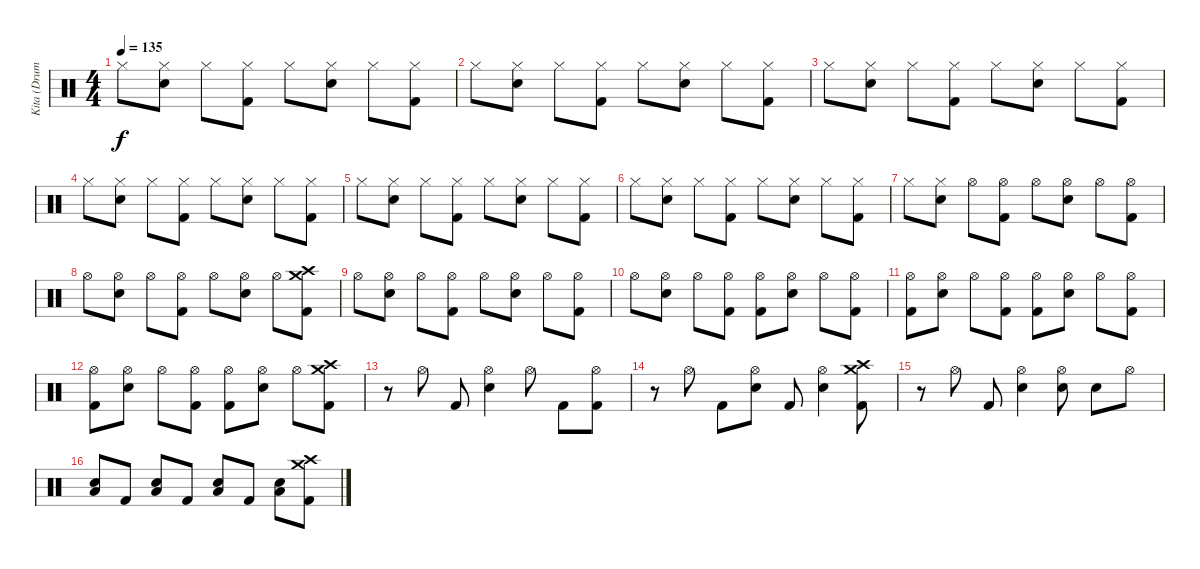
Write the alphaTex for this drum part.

\track ("Kita (Drums)" "Kita (Drum") {instrument percussion}
\staff {score}
\articulation defaults
\ts (4 4)
\tempo 135
\clef neutral
\ks c "Hi-Hat (closed)".8{dy f}
("Hi-Hat (closed)" "Electric Snare (hit)").8 "Hi-Hat (closed)".8 ("Hi-Hat (closed)" "Kick (hit) 2").8 "Hi-Hat (closed)".8 ("Hi-Hat (closed)" "Electric Snare (hit)").8 "Hi-Hat (closed)".8 ("Hi-Hat (closed)" "Kick (hit) 2").8 |
"Hi-Hat (closed)".8 ("Hi-Hat (closed)" "Electric Snare (hit)").8 "Hi-Hat (closed)".8 ("Hi-Hat (closed)" "Kick (hit) 2").8 "Hi-Hat (closed)".8 ("Hi-Hat (closed)" "Electric Snare (hit)").8 "Hi-Hat (closed)".8 ("Hi-Hat (closed)" "Kick (hit) 2").8 |
"Hi-Hat (closed)".8 ("Hi-Hat (closed)" "Electric Snare (hit)").8 "Hi-Hat (closed)".8 ("Hi-Hat (closed)" "Kick (hit) 2").8 "Hi-Hat (closed)".8 ("Hi-Hat (closed)" "Electric Snare (hit)").8 "Hi-Hat (closed)".8 ("Hi-Hat (closed)" "Kick (hit) 2").8 |
"Hi-Hat (closed)".8 ("Hi-Hat (closed)" "Electric Snare (hit)").8 "Hi-Hat (closed)".8 ("Hi-Hat (closed)" "Kick (hit) 2").8 "Hi-Hat (closed)".8 ("Hi-Hat (closed)" "Electric Snare (hit)").8 "Hi-Hat (closed)".8 ("Hi-Hat (closed)" "Kick (hit) 2").8 |
"Hi-Hat (closed)".8 ("Hi-Hat (closed)" "Electric Snare (hit)").8 "Hi-Hat (closed)".8 ("Hi-Hat (closed)" "Kick (hit) 2").8 "Hi-Hat (closed)".8 ("Hi-Hat (closed)" "Electric Snare (hit)").8 "Hi-Hat (closed)".8 ("Hi-Hat (closed)" "Kick (hit) 2").8 |
"Hi-Hat (closed)".8 ("Hi-Hat (closed)" "Electric Snare (hit)").8 "Hi-Hat (closed)".8 ("Hi-Hat (closed)" "Kick (hit) 2").8 "Hi-Hat (closed)".8 ("Hi-Hat (closed)" "Electric Snare (hit)").8 "Hi-Hat (closed)".8 ("Hi-Hat (closed)" "Kick (hit) 2").8 |
"Hi-Hat (closed)".8 ("Hi-Hat (closed)" "Electric Snare (hit)").8 "Hi-Hat (open)".8 ("Hi-Hat (open)" "Kick (hit) 2").8 "Hi-Hat (open)".8 ("Hi-Hat (open)" "Electric Snare (hit)").8 "Hi-Hat (open)".8 ("Hi-Hat (open)" "Kick (hit) 2").8 |
"Hi-Hat (open)".8 ("Hi-Hat (open)" "Electric Snare (hit)").8 "Hi-Hat (open)".8 ("Hi-Hat (open)" "Kick (hit) 2").8 "Hi-Hat (open)".8 ("Hi-Hat (open)" "Electric Snare (hit)").8 "Hi-Hat (open)".8 ("Crash medium (hit)" "Crash high (hit)" "Kick (hit) 2").8 |
"Hi-Hat (open)".8 ("Hi-Hat (open)" "Electric Snare (hit)").8 "Hi-Hat (open)".8 ("Hi-Hat (open)" "Kick (hit) 2").8 "Hi-Hat (open)".8 ("Hi-Hat (open)" "Electric Snare (hit)").8 "Hi-Hat (open)".8 ("Hi-Hat (open)" "Kick (hit) 2").8 |
"Hi-Hat (open)".8 ("Hi-Hat (open)" "Electric Snare (hit)").8 "Hi-Hat (open)".8 ("Hi-Hat (open)" "Kick (hit) 2").8 ("Hi-Hat (open)" "Kick (hit) 2").8 ("Hi-Hat (open)" "Electric Snare (hit)").8 "Hi-Hat (open)".8 ("Hi-Hat (open)" "Kick (hit) 2").8 |
("Hi-Hat (open)" "Kick (hit) 2").8 ("Hi-Hat (open)" "Electric Snare (hit)").8 "Hi-Hat (open)".8 ("Hi-Hat (open)" "Kick (hit) 2").8 ("Hi-Hat (open)" "Kick (hit) 2").8 ("Hi-Hat (open)" "Electric Snare (hit)").8 "Hi-Hat (open)".8 ("Hi-Hat (open)" "Kick (hit) 2").8 |
("Hi-Hat (open)" "Kick (hit) 2").8 ("Hi-Hat (open)" "Electric Snare (hit)").8 "Hi-Hat (open)".8 ("Hi-Hat (open)" "Kick (hit) 2").8 ("Hi-Hat (open)" "Kick (hit) 2").8 ("Hi-Hat (open)" "Electric Snare (hit)").8 "Hi-Hat (open)".8 ("Crash medium (hit)" "Crash high (hit)" "Kick (hit) 2").8 |
r.8 "Hi-Hat (open)".8 "Kick (hit) 2".8 ("Hi-Hat (open)" "Electric Snare (hit)").4 "Hi-Hat (open)".8 "Kick (hit) 2".8 ("Hi-Hat (open)" "Kick (hit) 2").8 |
r.8 "Hi-Hat (open)".8 "Kick (hit) 2".8 ("Hi-Hat (open)" "Electric Snare (hit)").8 "Kick (hit) 2".8 ("Hi-Hat (open)" "Electric Snare (hit)").4 ("Crash medium (hit)" "Crash high (hit)" "Kick (hit) 2").8 |
r.8 "Hi-Hat (open)".8 "Kick (hit) 2".8 ("Hi-Hat (open)" "Electric Snare (hit)").4 ("Hi-Hat (open)" "Electric Snare (hit)").8 "Electric Snare (hit)".8 "Hi-Hat (open)".8 |
("Low Floor Tom (hit)" "Electric Snare (hit)").8 "Kick (hit) 2".8 ("Low Floor Tom (hit)" "Electric Snare (hit)").8 "Kick (hit) 2".8 ("Low Floor Tom (hit)" "Electric Snare (hit)").8 "Kick (hit) 2".8 ("Low Floor Tom (hit)" "Electric Snare (hit)").8 ("Crash medium (hit)" "Crash high (hit)" "Kick (hit) 2").8
